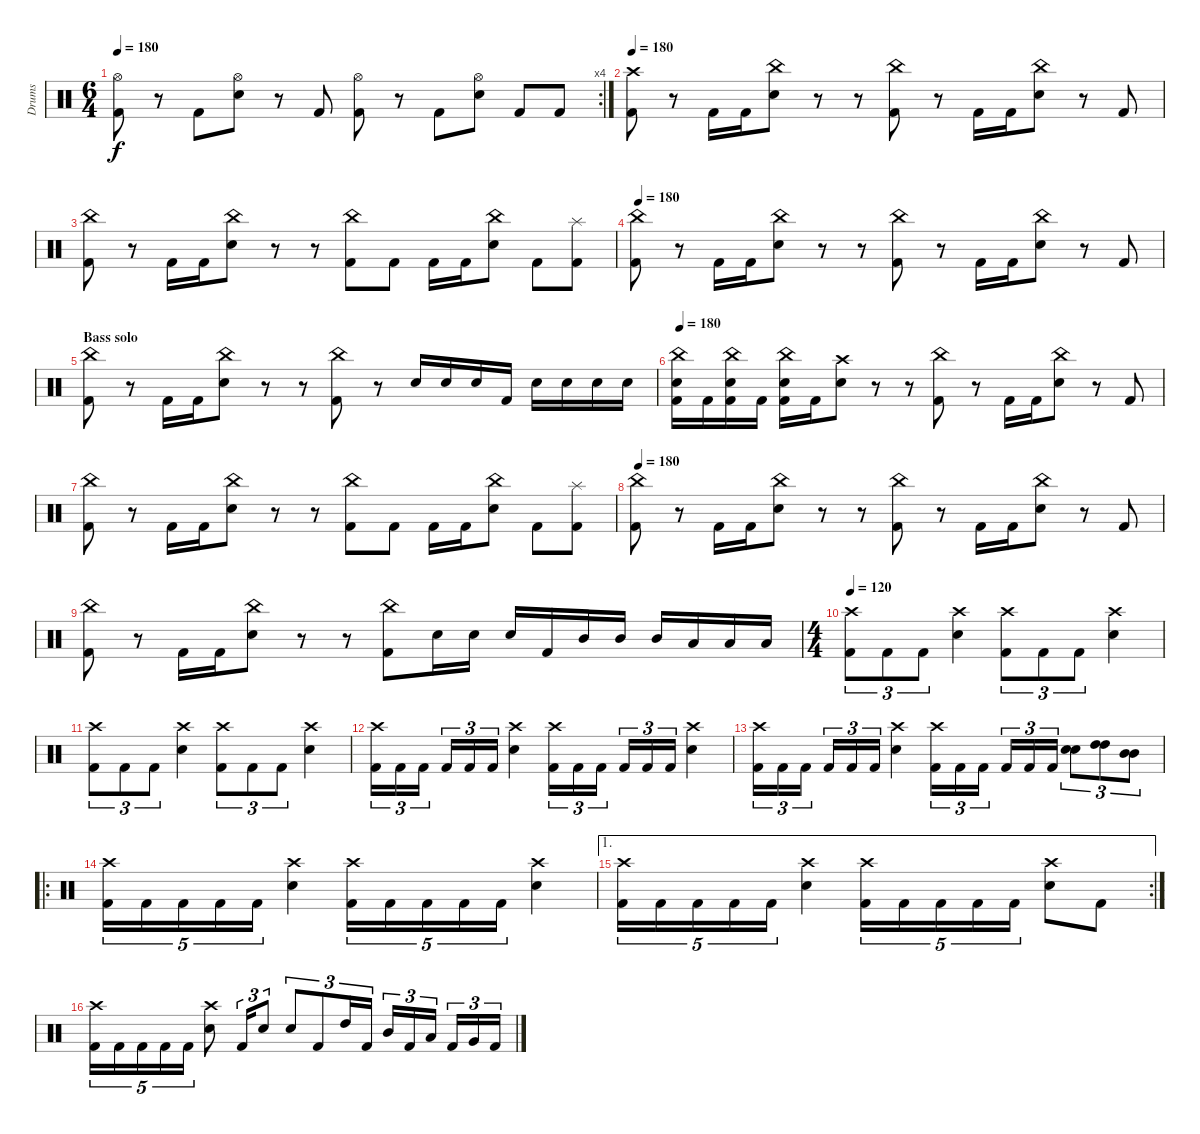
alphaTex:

\track ("Drums" "Drums") {instrument percussion}
\staff {score}
\articulation defaults
\rc 4
\ts (6 4)
\tempo 180
\clef neutral
\ks c
("Hi-Hat (open)" "Kick (hit) 2").8{dy f} r.8 "Kick (hit) 2".8 ("Hi-Hat (open)" "Electric Snare (hit)").8 r.8 "Kick (hit) 2".8 ("Hi-Hat (open)" "Kick (hit) 2").8 r.8 "Kick (hit) 2".8 ("Hi-Hat (open)" "Electric Snare (hit)").8 "Kick (hit) 2".8 "Kick (hit) 2".8 |
\tempo 180
("Crash high (hit)" "Kick (hit) 2").8 r.8 "Kick (hit) 2".16 "Kick (hit) 2".16 ("China (hit)" "Electric Snare (hit)").8 r.8 r.8 ("China (hit)" "Kick (hit) 2").8 r.8 "Kick (hit) 2".16 "Kick (hit) 2".16 ("China (hit)" "Electric Snare (hit)").8 r.8 "Kick (hit) 2".8 |
("China (hit)" "Kick (hit) 2").8 r.8 "Kick (hit) 2".16 "Kick (hit) 2".16 ("China (hit)" "Electric Snare (hit)").8 r.8 r.8 ("China (hit)" "Kick (hit) 2").8 "Kick (hit) 2".8 "Kick (hit) 2".16 "Kick (hit) 2".16 ("China (hit)" "Electric Snare (hit)").8 "Kick (hit) 2".8 ("Splash (hit)" "Kick (hit) 2").8 |
\tempo 180
("China (hit)" "Kick (hit) 2").8 r.8 "Kick (hit) 2".16 "Kick (hit) 2".16 ("China (hit)" "Electric Snare (hit)").8 r.8 r.8 ("China (hit)" "Kick (hit) 2").8 r.8 "Kick (hit) 2".16 "Kick (hit) 2".16 ("China (hit)" "Electric Snare (hit)").8 r.8 "Kick (hit) 2".8 |
\section ("" "Bass solo")
("China (hit)" "Kick (hit) 2").8 r.8 "Kick (hit) 2".16 "Kick (hit) 2".16 ("China (hit)" "Electric Snare (hit)").8 r.8 r.8 ("China (hit)" "Kick (hit) 2").8 r.8 "Electric Snare (hit)".16 "Electric Snare (hit)".16 "Electric Snare (hit)".16 "Kick (hit) 2".16 "Electric Snare (hit)".16 "Electric Snare (hit)".16 "Electric Snare (hit)".16 "Electric Snare (hit)".16 |
\tempo 180
("China (hit)" "Electric Snare (hit)" "Kick (hit) 2").16 "Kick (hit) 2".16 ("China (hit)" "Electric Snare (hit)" "Kick (hit) 2").16 "Kick (hit) 2".16 ("China (hit)" "Electric Snare (hit)" "Kick (hit) 2").16 "Kick (hit) 2".16 ("Crash high (hit)" "Electric Snare (hit)").8 r.8 r.8 ("China (hit)" "Kick (hit) 2").8 r.8 "Kick (hit) 2".16 "Kick (hit) 2".16 ("China (hit)" "Electric Snare (hit)").8 r.8 "Kick (hit) 2".8 |
("China (hit)" "Kick (hit) 2").8 r.8 "Kick (hit) 2".16 "Kick (hit) 2".16 ("China (hit)" "Electric Snare (hit)").8 r.8 r.8 ("China (hit)" "Kick (hit) 2").8 "Kick (hit) 2".8 "Kick (hit) 2".16 "Kick (hit) 2".16 ("China (hit)" "Electric Snare (hit)").8 "Kick (hit) 2".8 ("Splash (hit)" "Kick (hit) 2").8 |
\tempo 180
("China (hit)" "Kick (hit) 2").8 r.8 "Kick (hit) 2".16 "Kick (hit) 2".16 ("China (hit)" "Electric Snare (hit)").8 r.8 r.8 ("China (hit)" "Kick (hit) 2").8 r.8 "Kick (hit) 2".16 "Kick (hit) 2".16 ("China (hit)" "Electric Snare (hit)").8 r.8 "Kick (hit) 2".8 |
("China (hit)" "Kick (hit) 2").8 r.8 "Kick (hit) 2".16 "Kick (hit) 2".16 ("China (hit)" "Electric Snare (hit)").8 r.8 r.8 ("China (hit)" "Kick (hit) 2").8 "Electric Snare (hit)".16 "Electric Snare (hit)".16 "Electric Snare (hit)".16 "Kick (hit) 2".16 "Mid Tom (hit)".16 "Mid Tom (hit)".16 "Mid Tom (hit)".16 "Low Tom (hit)".16 "Low Tom (hit)".16 "Low Tom (hit)".16 |
\ts (4 4)
\tempo 120
("Crash high (hit)" "Kick (hit) 2").8{tu (3 2)} "Kick (hit) 2".8{tu (3 2)} "Kick (hit) 2".8{tu (3 2)} ("Crash high (hit)" "Electric Snare (hit)").4 ("Crash high (hit)" "Kick (hit) 2").8{tu (3 2)} "Kick (hit) 2".8{tu (3 2)} "Kick (hit) 2".8{tu (3 2)} ("Crash high (hit)" "Electric Snare (hit)").4 |
("Crash high (hit)" "Kick (hit) 2").8{tu (3 2)} "Kick (hit) 2".8{tu (3 2)} "Kick (hit) 2".8{tu (3 2)} ("Crash high (hit)" "Electric Snare (hit)").4 ("Crash high (hit)" "Kick (hit) 2").8{tu (3 2)} "Kick (hit) 2".8{tu (3 2)} "Kick (hit) 2".8{tu (3 2)} ("Crash high (hit)" "Electric Snare (hit)").4 |
("Crash high (hit)" "Kick (hit) 2").16{tu (3 2)} "Kick (hit) 2".16{tu (3 2)} "Kick (hit) 2".16{tu (3 2)} "Kick (hit) 2".16{tu (3 2)} "Kick (hit) 2".16{tu (3 2)} "Kick (hit) 2".16{tu (3 2)} ("Crash high (hit)" "Electric Snare (hit)").4 ("Crash high (hit)" "Kick (hit) 2").16{tu (3 2)} "Kick (hit) 2".16{tu (3 2)} "Kick (hit) 2".16{tu (3 2)} "Kick (hit) 2".16{tu (3 2)} "Kick (hit) 2".16{tu (3 2)} "Kick (hit) 2".16{tu (3 2)} ("Crash high (hit)" "Electric Snare (hit)").4 |
("Crash high (hit)" "Kick (hit) 2").16{tu (3 2)} "Kick (hit) 2".16{tu (3 2)} "Kick (hit) 2".16{tu (3 2)} "Kick (hit) 2".16{tu (3 2)} "Kick (hit) 2".16{tu (3 2)} "Kick (hit) 2".16{tu (3 2)} ("Crash high (hit)" "Electric Snare (hit)").4 ("Crash high (hit)" "Kick (hit) 2").16{tu (3 2)} "Kick (hit) 2".16{tu (3 2)} "Kick (hit) 2".16{tu (3 2)} "Kick (hit) 2".16{tu (3 2)} "Kick (hit) 2".16{tu (3 2)} "Kick (hit) 2".16{tu (3 2)} ("Electric Snare (hit)" "Electric Snare (hit)").8{tu (3 2)} ("High Tom (hit)" "High Tom (hit)").8{tu (3 2)} ("Mid Tom (hit)" "Mid Tom (hit)").8{tu (3 2)} |
\ro
("Crash high (hit)" "Kick (hit) 2").16{tu (5 4)} "Kick (hit) 2".16{tu (5 4)} "Kick (hit) 2".16{tu (5 4)} "Kick (hit) 2".16{tu (5 4)} "Kick (hit) 2".16{tu (5 4)} ("Crash high (hit)" "Electric Snare (hit)").4 ("Crash high (hit)" "Kick (hit) 2").16{tu (5 4)} "Kick (hit) 2".16{tu (5 4)} "Kick (hit) 2".16{tu (5 4)} "Kick (hit) 2".16{tu (5 4)} "Kick (hit) 2".16{tu (5 4)} ("Crash high (hit)" "Electric Snare (hit)").4 |
\ae 1
\rc 2
("Crash high (hit)" "Kick (hit) 2").16{tu (5 4)} "Kick (hit) 2".16{tu (5 4)} "Kick (hit) 2".16{tu (5 4)} "Kick (hit) 2".16{tu (5 4)} "Kick (hit) 2".16{tu (5 4)} ("Crash high (hit)" "Electric Snare (hit)").4 ("Crash high (hit)" "Kick (hit) 2").16{tu (5 4)} "Kick (hit) 2".16{tu (5 4)} "Kick (hit) 2".16{tu (5 4)} "Kick (hit) 2".16{tu (5 4)} "Kick (hit) 2".16{tu (5 4)} ("Crash high (hit)" "Electric Snare (hit)").8 "Kick (hit) 2".8 |
("Crash high (hit)" "Kick (hit) 2").16{tu (5 4)} "Kick (hit) 2".16{tu (5 4)} "Kick (hit) 2".16{tu (5 4)} "Kick (hit) 2".16{tu (5 4)} "Kick (hit) 2".16{tu (5 4)} ("Crash high (hit)" "Electric Snare (hit)").8 "Kick (hit) 2".16{tu (3 2)} "Electric Snare (hit)".8{tu (3 2)} "Electric Snare (hit)".8{tu (3 2)} "Kick (hit) 2".8{tu (3 2)} "High Tom (hit)".16{tu (3 2)} "Kick (hit) 2".16{tu (3 2)} "Mid Tom (hit)".16{tu (3 2)} "Kick (hit) 2".16{tu (3 2)} "Low Tom (hit)".16{tu (3 2)} "Kick (hit) 2".16{tu (3 2)} "Very Low Tom (hit)".16{tu (3 2)} "Kick (hit) 2".16{tu (3 2)}
